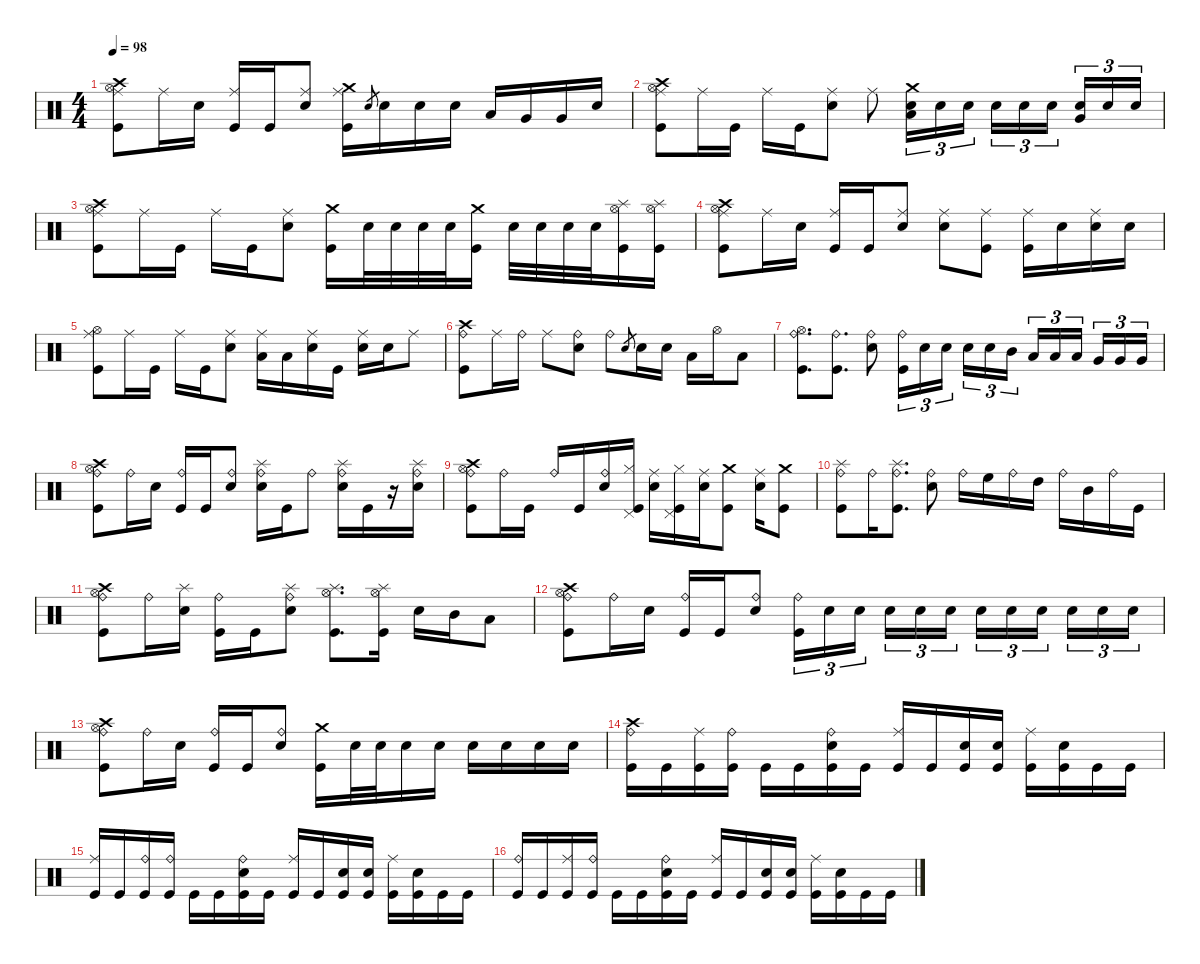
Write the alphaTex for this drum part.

\defaultSystemsLayout 4
\hideDynamics
\bracketExtendMode nobrackets
\singleTrackTrackNamePolicy hidden
\multiTrackTrackNamePolicy hidden
\firstSystemTrackNameMode fullname
\otherSystemsTrackNameOrientation horizontal
\track ("Drums" "drm.") {instrument percussion}
\staff {score}
\articulation defaults
\ts (4 4)
\tempo 98
\clef neutral
\ks aminor
("Ride (middle)" "Crash high (hit)" "Hi-Hat (open)" "Kick (hit)").8{dy f beam Down} "Ride (middle)".16{beam Down} "Snare (hit) 2".16{beam Down} ("Ride (middle)" "Kick (hit)").16{beam Up} "Kick (hit)".16{beam Up} ("Ride (middle)" "Snare (hit) 2").8{beam Up} ("Crash medium (hit)" "Ride (middle)" "Kick (hit)").16{beam Down} "Electric Snare (hit)".8{gr dy mf beam Up} "Snare (hit) 2".16{dy f beam Down} "Snare (hit) 2".16{beam Down} "Snare (hit) 2".16{beam Down} "Low Tom (hit)".16{beam Up} "Very Low Tom (hit)".16{beam Up} "Very Low Tom (hit)".16{beam Up} "Snare (hit) 2".16{beam Up} |
("Ride (middle)" "Crash high (hit)" "Hi-Hat (open)" "Kick (hit)").8{beam Down} "Ride (middle)".16{beam Down} "Kick (hit)".16{beam Down} "Ride (middle)".16{beam Down} "Kick (hit)".16{beam Down} ("Ride (middle)" "Snare (hit) 2").8{beam Down} "Ride (middle)".8{beam Down} ("Crash medium (hit)" "Low Tom (hit)" "Snare (hit) 2").16{tu (3 2) beam Down} "Snare (hit) 2".16{tu (3 2) beam Down} "Snare (hit) 2".16{tu (3 2) beam Down} "Snare (hit) 2".16{tu (3 2) beam Down} "Snare (hit) 2".16{tu (3 2) beam Down} "Snare (hit) 2".16{tu (3 2) beam Down} ("Very Low Tom (hit)" "Snare (hit) 2").16{tu (3 2) beam Up} "Snare (hit) 2".16{tu (3 2) beam Up} "Snare (hit) 2".16{tu (3 2) beam Up} |
("Ride (middle)" "Crash high (hit)" "Hi-Hat (open)" "Kick (hit)").8{beam Down} "Ride (middle)".16{beam Down} "Kick (hit)".16{beam Down} "Ride (middle)".16{beam Down} "Kick (hit)".16{beam Down} ("Ride (middle)" "Snare (hit) 2").8{beam Down} ("Crash medium (hit)" "Kick (hit)").16{beam Down} "Snare (hit) 2".32{beam Down} "Snare (hit) 2".32{beam Down} "Snare (hit) 2".32{beam Down} "Snare (hit) 2".32{beam Down} ("Crash medium (hit)" "Kick (hit)").16{beam Down} "Snare (hit) 2".32{beam Down} "Snare (hit) 2".32{beam Down} "Snare (hit) 2".32{beam Down} "Snare (hit) 2".32{beam Down} ("Splash (hit)" "Hi-Hat (open)" "Kick (hit)").16{beam Down} ("Splash (hit)" "Hi-Hat (open)" "Kick (hit)").16{beam Down} |
("Ride (middle)" "Crash high (hit)" "Hi-Hat (open)" "Kick (hit)").8{beam Down} "Ride (middle)".16{beam Down} "Snare (hit) 2".16{beam Down} ("Ride (middle)" "Kick (hit)").16{beam Up} "Kick (hit)".16{beam Up} ("Ride (middle)" "Snare (hit) 2").8{beam Up} ("Ride (middle)" "Snare (hit) 2").8{beam Down} ("Ride (middle)" "Kick (hit)").8{beam Down} ("Ride (middle)" "Kick (hit)").16{beam Down} "Snare (hit) 2".16{beam Down} ("Ride (middle)" "Snare (hit) 2").16{beam Down} "Snare (hit) 2".16{beam Down} |
("Ride (middle)" "Hi-Hat (open)" "Kick (hit)").8{beam Down} "Ride (middle)".16{beam Down} "Kick (hit)".16{beam Down} "Ride (middle)".16{beam Down} "Kick (hit)".16{beam Down} ("Ride (middle)" "Snare (hit) 2").8{beam Down} ("Ride (middle)" "Low Tom (hit)").16{beam Down} "Low Tom (hit)".16{beam Down} ("Ride (middle)" "Snare (hit) 2").16{beam Down} "Kick (hit)".16{beam Down} ("Ride (middle)" "Snare (hit) 2").16{beam Down} "Snare (hit) 2".16{beam Down} "Ride (middle)".8{beam Down} |
("Crash high (hit)" "Ride (bell)" "Kick (hit)").8{beam Down} "Ride (middle)".16{beam Down} "Ride (bell)".16{beam Down} "Ride (middle)".8{beam Down} ("Ride (bell)" "Snare (hit) 2").8{beam Down} "Ride (bell)".8{beam Down} "Electric Snare (hit)".8{gr dy mf beam Up} "Snare (hit) 2".16{dy f beam Down} "Snare (hit) 2".16{beam Down} "Low Tom (hit)".16{beam Down} "Hi-Hat (open)".16{beam Down} "Low Tom (hit)".8{beam Down} |
("Ride (bell)" "Hi-Hat (open)" "Kick (hit)").8{d beam Down} ("Ride (bell)" "Kick (hit)").8{d beam Down} ("Ride (bell)" "Snare (hit) 2").8{beam Down} ("Ride (bell)" "Kick (hit)").16{tu (3 2) beam Down} "Snare (hit) 2".16{tu (3 2) beam Down} "Snare (hit) 2".16{tu (3 2) beam Down} "Snare (hit) 2".16{tu (3 2) beam Down} "Snare (hit) 2".16{tu (3 2) beam Down} "Mid Tom (hit)".16{tu (3 2) beam Down} "Low Tom (hit)".16{tu (3 2) beam Up} "Low Tom (hit)".16{tu (3 2) beam Up} "Low Tom (hit)".16{tu (3 2) beam Up} "Very Low Tom (hit)".16{tu (3 2) beam Up} "Very Low Tom (hit)".16{tu (3 2) beam Up} "Very Low Tom (hit)".16{tu (3 2) beam Up} |
("Crash high (hit)" "Ride (bell)" "Hi-Hat (open)" "Kick (hit)").8{beam Down} "Ride (bell)".16{beam Down} "Snare (hit) 2".16{beam Down} ("Ride (bell)" "Kick (hit)").16{beam Up} "Kick (hit)".16{beam Up} ("Ride (bell)" "Snare (hit) 2").8{beam Up} ("Splash (hit)" "Ride (bell)" "Snare (hit) 2").16{beam Down} "Kick (hit)".16{beam Down} "Ride (bell)".8{beam Down} ("Splash (hit)" "Ride (bell)" "Snare (hit) 2").16{beam Down} "Kick (hit)".16{beam Down} r.16{beam Down} ("Splash (hit)" "Ride (bell)" "Snare (hit) 2").16{beam Down} |
("Ride (bell)" "Crash high (hit)" "Hi-Hat (open)" "Kick (hit)").8{beam Down} "Ride (bell)".16{beam Down} "Kick (hit)".16{beam Down} "Ride (bell)".16{beam Up} "Kick (hit)".16{beam Up} ("Ride (bell)" "Snare (hit) 2").16{beam Up} ("Hi-Hat (closed)" "Pedal Hi-Hat (hit)" "Kick (hit)").16{beam Up} ("Ride (middle)" "Snare (hit) 2").16{beam Down} ("Hi-Hat (closed)" "Pedal Hi-Hat (hit)" "Kick (hit)").16{beam Down} ("Ride (middle)" "Snare (hit) 2").16{beam Down} ("Crash medium (hit)" "Kick (hit)").8{beam Down} ("Ride (middle)" "Snare (hit) 2").16{beam Down} ("Crash medium (hit)" "Kick (hit)").8{beam Down} |
("Ride (bell)" "Splash (hit)" "Kick (hit)").8{beam Down} "Ride (bell)".16{beam Down} ("Ride (bell)" "Splash (hit)" "Kick (hit)").8{d beam Down} ("Ride (bell)" "Snare (hit) 2").8{beam Down} "Ride (bell)".16{beam Down} "High Floor Tom (hit)".16{beam Down} "Ride (bell)".16{beam Down} "High Tom (hit)".16{beam Down} "Ride (bell)".16{beam Down} "Mid Tom (hit)".16{beam Down} "Ride (bell)".16{beam Down} "Kick (hit)".16{beam Down} |
("Crash high (hit)" "Ride (bell)" "Hi-Hat (open)" "Kick (hit)").8{beam Down} "Ride (bell)".16{beam Down} ("Splash (hit)" "Snare (hit) 2").16{beam Down} ("Ride (bell)" "Kick (hit)").16{beam Down} "Kick (hit)".16{beam Down} ("Splash (hit)" "Ride (bell)" "Snare (hit) 2").8{beam Down} ("Splash (hit)" "Hi-Hat (open)" "Kick (hit)").8{d beam Down} ("Splash (hit)" "Hi-Hat (open)" "Kick (hit)").16{beam Down} "Snare (hit) 2".16{beam Down} "Mid Tom (hit)".16{beam Down} "Low Tom (hit)".8{beam Down} |
("Crash high (hit)" "Ride (bell)" "Hi-Hat (open)" "Kick (hit)").8{beam Down} "Ride (bell)".16{beam Down} "Snare (hit) 2".16{beam Down} ("Ride (bell)" "Kick (hit)").16{beam Up} "Kick (hit)".16{beam Up} ("Ride (bell)" "Snare (hit) 2").8{beam Up} ("Ride (bell)" "Kick (hit)").16{tu (3 2) beam Down} "Snare (hit) 2".16{tu (3 2) beam Down} "Snare (hit) 2".16{tu (3 2) beam Down} "Snare (hit) 2".16{tu (3 2) beam Down} "Snare (hit) 2".16{tu (3 2) beam Down} "Snare (hit) 2".16{tu (3 2) beam Down} "Snare (hit) 2".16{tu (3 2) beam Down} "Snare (hit) 2".16{tu (3 2) beam Down} "Snare (hit) 2".16{tu (3 2) beam Down} "Snare (hit) 2".16{tu (3 2) beam Down} "Snare (hit) 2".16{tu (3 2) beam Down} "Snare (hit) 2".16{tu (3 2) beam Down} |
("Crash high (hit)" "Ride (bell)" "Hi-Hat (open)" "Kick (hit)").8{beam Down} "Ride (bell)".16{beam Down} "Snare (hit) 2".16{beam Down} ("Ride (bell)" "Kick (hit)").16{beam Up} "Kick (hit)".16{beam Up} ("Ride (bell)" "Snare (hit) 2").8{beam Up} ("Crash medium (hit)" "Kick (hit)").16{beam Down} "Snare (hit) 2".32{beam Down} "Snare (hit) 2".32{beam Down} "Snare (hit) 2".16{beam Down} "Snare (hit) 2".16{beam Down} "Snare (hit) 2".16{beam Down} "Snare (hit) 2".16{beam Down} "Snare (hit) 2".16{beam Down} "Snare (hit) 2".16{beam Down} |
("Crash high (hit)" "Ride (bell)" "Kick (hit)").16{beam Down} "Kick (hit)".16{beam Down} ("Ride (middle)" "Kick (hit)").16{beam Down} ("Ride (bell)" "Kick (hit)").16{beam Down} "Kick (hit)".16{beam Down} "Kick (hit)".16{beam Down} ("Ride (bell)" "Snare (hit) 2" "Kick (hit)").16{beam Down} "Kick (hit)".16{beam Down} ("Ride (middle)" "Kick (hit)").16{beam Up} "Kick (hit)".16{beam Up} ("Snare (hit) 2" "Kick (hit)").16{beam Up} ("Snare (hit) 2" "Kick (hit)").16{beam Up} ("Ride (middle)" "Kick (hit)").16{beam Down} ("Snare (hit) 2" "Kick (hit)").16{beam Down} "Kick (hit)".16{beam Down} "Kick (hit)".16{beam Down} |
("Ride (middle)" "Kick (hit)").16{beam Up} "Kick (hit)".16{beam Up} ("Ride (bell)" "Kick (hit)").16{beam Up} ("Ride (bell)" "Kick (hit)").16{beam Up} "Kick (hit)".16{beam Down} "Kick (hit)".16{beam Down} ("Ride (bell)" "Snare (hit) 2" "Kick (hit)").16{beam Down} "Kick (hit)".16{beam Down} ("Ride (middle)" "Kick (hit)").16{beam Up} "Kick (hit)".16{beam Up} ("Snare (hit) 2" "Kick (hit)").16{beam Up} ("Snare (hit) 2" "Kick (hit)").16{beam Up} ("Ride (middle)" "Kick (hit)").16{beam Down} ("Snare (hit) 2" "Kick (hit)").16{beam Down} "Kick (hit)".16{beam Down} "Kick (hit)".16{beam Down} |
("Ride (bell)" "Kick (hit)").16{beam Up} "Kick (hit)".16{beam Up} ("Ride (middle)" "Kick (hit)").16{beam Up} ("Ride (bell)" "Kick (hit)").16{beam Up} "Kick (hit)".16{beam Down} "Kick (hit)".16{beam Down} ("Ride (bell)" "Snare (hit) 2" "Kick (hit)").16{beam Down} "Kick (hit)".16{beam Down} ("Ride (middle)" "Kick (hit)").16{beam Up} "Kick (hit)".16{beam Up} ("Snare (hit) 2" "Kick (hit)").16{beam Up} ("Snare (hit) 2" "Kick (hit)").16{beam Up} ("Ride (middle)" "Kick (hit)").16{beam Down} ("Snare (hit) 2" "Kick (hit)").16{beam Down} "Kick (hit)".16{beam Down} "Kick (hit)".16{beam Down}
